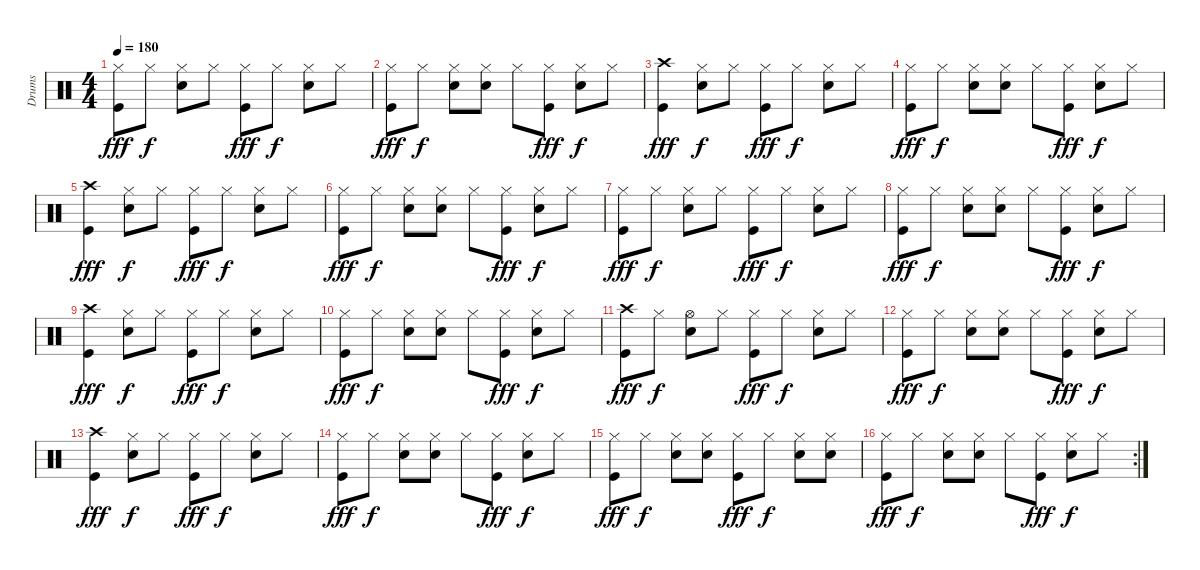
\track ("Drums" "Drums") {instrument percussion}
\staff {score}
\articulation defaults
\ts (4 4)
\tempo 180
\clef neutral
\ks c
("Hi-Hat (closed)" "Kick (hit)").8{dy fff} "Hi-Hat (closed)".8{dy f} ("Hi-Hat (closed)" "Snare (hit) 2").8 "Hi-Hat (closed)".8 ("Hi-Hat (closed)" "Kick (hit)").8{dy fff} "Hi-Hat (closed)".8{dy f} ("Hi-Hat (closed)" "Snare (hit) 2").8 "Hi-Hat (closed)".8 |
("Hi-Hat (closed)" "Kick (hit)").8{dy fff} "Hi-Hat (closed)".8{dy f} ("Hi-Hat (closed)" "Snare (hit) 2").8 ("Hi-Hat (closed)" "Snare (hit) 2").8 "Hi-Hat (closed)".8 ("Hi-Hat (closed)" "Kick (hit)").8{dy fff} ("Hi-Hat (closed)" "Snare (hit) 2").8{dy f} "Hi-Hat (closed)".8 |
("Crash high (hit)" "Kick (hit)").4{dy fff} ("Hi-Hat (closed)" "Snare (hit) 2").8{dy f} "Hi-Hat (closed)".8 ("Hi-Hat (closed)" "Kick (hit)").8{dy fff} "Hi-Hat (closed)".8{dy f} ("Hi-Hat (closed)" "Snare (hit) 2").8 "Hi-Hat (closed)".8 |
("Hi-Hat (closed)" "Kick (hit)").8{dy fff} "Hi-Hat (closed)".8{dy f} ("Hi-Hat (closed)" "Snare (hit) 2").8 ("Hi-Hat (closed)" "Snare (hit) 2").8 "Hi-Hat (closed)".8 ("Hi-Hat (closed)" "Kick (hit)").8{dy fff} ("Hi-Hat (closed)" "Snare (hit) 2").8{dy f} "Hi-Hat (closed)".8 |
("Crash high (hit)" "Kick (hit)").4{dy fff} ("Hi-Hat (closed)" "Snare (hit) 2").8{dy f} "Hi-Hat (closed)".8 ("Hi-Hat (closed)" "Kick (hit)").8{dy fff} "Hi-Hat (closed)".8{dy f} ("Hi-Hat (closed)" "Snare (hit) 2").8 "Hi-Hat (closed)".8 |
("Hi-Hat (closed)" "Kick (hit)").8{dy fff} "Hi-Hat (closed)".8{dy f} ("Hi-Hat (closed)" "Snare (hit) 2").8 ("Hi-Hat (closed)" "Snare (hit) 2").8 "Hi-Hat (closed)".8 ("Hi-Hat (closed)" "Kick (hit)").8{dy fff} ("Hi-Hat (closed)" "Snare (hit) 2").8{dy f} "Hi-Hat (closed)".8 |
("Hi-Hat (closed)" "Kick (hit)").8{dy fff} "Hi-Hat (closed)".8{dy f} ("Hi-Hat (closed)" "Snare (hit) 2").8 "Hi-Hat (closed)".8 ("Hi-Hat (closed)" "Kick (hit)").8{dy fff} "Hi-Hat (closed)".8{dy f} ("Hi-Hat (closed)" "Snare (hit) 2").8 "Hi-Hat (closed)".8 |
("Hi-Hat (closed)" "Kick (hit)").8{dy fff} "Hi-Hat (closed)".8{dy f} ("Hi-Hat (closed)" "Snare (hit) 2").8 ("Hi-Hat (closed)" "Snare (hit) 2").8 "Hi-Hat (closed)".8 ("Hi-Hat (closed)" "Kick (hit)").8{dy fff} ("Hi-Hat (closed)" "Snare (hit) 2").8{dy f} "Hi-Hat (closed)".8 |
("Crash high (hit)" "Kick (hit)").4{dy fff} ("Hi-Hat (closed)" "Snare (hit) 2").8{dy f} "Hi-Hat (closed)".8 ("Hi-Hat (closed)" "Kick (hit)").8{dy fff} "Hi-Hat (closed)".8{dy f} ("Hi-Hat (closed)" "Snare (hit) 2").8 "Hi-Hat (closed)".8 |
("Hi-Hat (closed)" "Kick (hit)").8{dy fff} "Hi-Hat (closed)".8{dy f} ("Hi-Hat (closed)" "Snare (hit) 2").8 ("Hi-Hat (closed)" "Snare (hit) 2").8 "Hi-Hat (closed)".8 ("Hi-Hat (closed)" "Kick (hit)").8{dy fff} ("Hi-Hat (closed)" "Snare (hit) 2").8{dy f} "Hi-Hat (closed)".8 |
("Crash high (hit)" "Kick (hit)").8{dy fff} "Hi-Hat (closed)".8{dy f} ("Hi-Hat (open)" "Snare (hit) 2").8 "Hi-Hat (closed)".8 ("Hi-Hat (closed)" "Kick (hit)").8{dy fff} "Hi-Hat (closed)".8{dy f} ("Hi-Hat (closed)" "Snare (hit) 2").8 "Hi-Hat (closed)".8 |
("Hi-Hat (closed)" "Kick (hit)").8{dy fff} "Hi-Hat (closed)".8{dy f} ("Hi-Hat (closed)" "Snare (hit) 2").8 ("Hi-Hat (closed)" "Snare (hit) 2").8 "Hi-Hat (closed)".8 ("Hi-Hat (closed)" "Kick (hit)").8{dy fff} ("Hi-Hat (closed)" "Snare (hit) 2").8{dy f} "Hi-Hat (closed)".8 |
("Crash high (hit)" "Kick (hit)").4{dy fff} ("Hi-Hat (closed)" "Snare (hit) 2").8{dy f} "Hi-Hat (closed)".8 ("Hi-Hat (closed)" "Kick (hit)").8{dy fff} "Hi-Hat (closed)".8{dy f} ("Hi-Hat (closed)" "Snare (hit) 2").8 "Hi-Hat (closed)".8 |
("Hi-Hat (closed)" "Kick (hit)").8{dy fff} "Hi-Hat (closed)".8{dy f} ("Hi-Hat (closed)" "Snare (hit) 2").8 ("Hi-Hat (closed)" "Snare (hit) 2").8 "Hi-Hat (closed)".8 ("Hi-Hat (closed)" "Kick (hit)").8{dy fff} ("Hi-Hat (closed)" "Snare (hit) 2").8{dy f} "Hi-Hat (closed)".8 |
("Hi-Hat (closed)" "Kick (hit)").8{dy fff} "Hi-Hat (closed)".8{dy f} ("Hi-Hat (closed)" "Snare (hit) 2").8 ("Hi-Hat (closed)" "Snare (hit) 2").8 ("Hi-Hat (closed)" "Kick (hit)").8{dy fff} "Hi-Hat (closed)".8{dy f} ("Hi-Hat (closed)" "Snare (hit) 2").8 ("Hi-Hat (closed)" "Snare (hit) 2").8 |
\rc 2
("Hi-Hat (closed)" "Kick (hit)").8{dy fff} "Hi-Hat (closed)".8{dy f} ("Hi-Hat (closed)" "Snare (hit) 2").8 ("Hi-Hat (closed)" "Snare (hit) 2").8 "Hi-Hat (closed)".8 ("Hi-Hat (closed)" "Kick (hit)").8{dy fff} ("Hi-Hat (closed)" "Snare (hit) 2").8{dy f} "Hi-Hat (closed)".8
